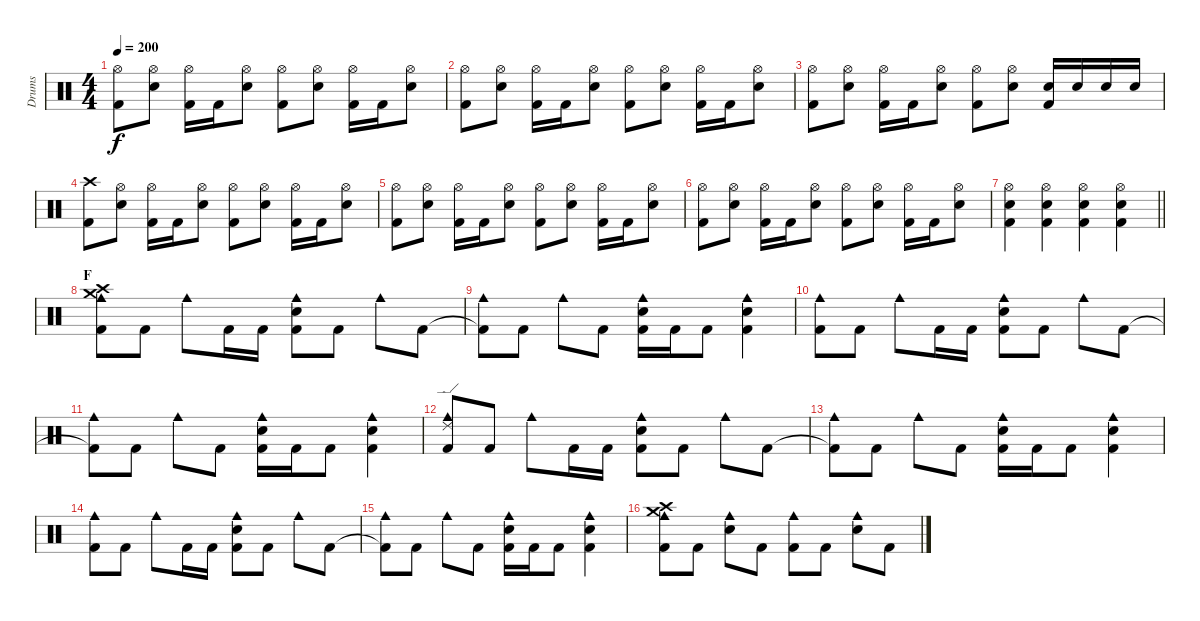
\track ("Drums" "Drums") {instrument percussion}
\staff {score}
\articulation defaults
\ts (4 4)
\tempo 200
\clef neutral
\ks c
("Hi-Hat (open)" "Kick (hit) 2").8{dy f} ("Hi-Hat (open)" "Electric Snare (hit)").8 ("Hi-Hat (open)" "Kick (hit) 2").16 "Kick (hit) 2".16 ("Hi-Hat (open)" "Electric Snare (hit)").8 ("Hi-Hat (open)" "Kick (hit) 2").8 ("Electric Snare (hit)" "Hi-Hat (open)").8 ("Hi-Hat (open)" "Kick (hit) 2").16 "Kick (hit) 2".16 ("Hi-Hat (open)" "Electric Snare (hit)").8 |
("Hi-Hat (open)" "Kick (hit) 2").8 ("Hi-Hat (open)" "Electric Snare (hit)").8 ("Hi-Hat (open)" "Kick (hit) 2").16 "Kick (hit) 2".16 ("Hi-Hat (open)" "Electric Snare (hit)").8 ("Hi-Hat (open)" "Kick (hit) 2").8 ("Electric Snare (hit)" "Hi-Hat (open)").8 ("Hi-Hat (open)" "Kick (hit) 2").16 "Kick (hit) 2".16 ("Hi-Hat (open)" "Electric Snare (hit)").8 |
("Hi-Hat (open)" "Kick (hit) 2").8 ("Hi-Hat (open)" "Electric Snare (hit)").8 ("Hi-Hat (open)" "Kick (hit) 2").16 "Kick (hit) 2".16 ("Hi-Hat (open)" "Electric Snare (hit)").8 ("Hi-Hat (open)" "Kick (hit) 2").8 ("Electric Snare (hit)" "Hi-Hat (open)").8 ("Electric Snare (hit)" "Kick (hit) 2").16 "Electric Snare (hit)".16 "Electric Snare (hit)".16 "Electric Snare (hit)".16 |
("Crash high (hit)" "Kick (hit) 2").8 ("Hi-Hat (open)" "Electric Snare (hit)").8 ("Hi-Hat (open)" "Kick (hit) 2").16 "Kick (hit) 2".16 ("Hi-Hat (open)" "Electric Snare (hit)").8 ("Hi-Hat (open)" "Kick (hit) 2").8 ("Electric Snare (hit)" "Hi-Hat (open)").8 ("Hi-Hat (open)" "Kick (hit) 2").16 "Kick (hit) 2".16 ("Hi-Hat (open)" "Electric Snare (hit)").8 |
("Hi-Hat (open)" "Kick (hit) 2").8 ("Hi-Hat (open)" "Electric Snare (hit)").8 ("Hi-Hat (open)" "Kick (hit) 2").16 "Kick (hit) 2".16 ("Hi-Hat (open)" "Electric Snare (hit)").8 ("Hi-Hat (open)" "Kick (hit) 2").8 ("Electric Snare (hit)" "Hi-Hat (open)").8 ("Hi-Hat (open)" "Kick (hit) 2").16 "Kick (hit) 2".16 ("Hi-Hat (open)" "Electric Snare (hit)").8 |
("Hi-Hat (open)" "Kick (hit) 2").8 ("Hi-Hat (open)" "Electric Snare (hit)").8 ("Hi-Hat (open)" "Kick (hit) 2").16 "Kick (hit) 2".16 ("Hi-Hat (open)" "Electric Snare (hit)").8 ("Hi-Hat (open)" "Kick (hit) 2").8 ("Electric Snare (hit)" "Hi-Hat (open)").8 ("Hi-Hat (open)" "Kick (hit) 2").16 "Kick (hit) 2".16 ("Hi-Hat (open)" "Electric Snare (hit)").8 |
\barLineRight lightlight
("Electric Snare (hit)" "Kick (hit) 2" "Hi-Hat (open)").4 ("Electric Snare (hit)" "Kick (hit) 2" "Hi-Hat (open)").4 ("Electric Snare (hit)" "Kick (hit) 2" "Hi-Hat (open)").4 ("Electric Snare (hit)" "Kick (hit) 2" "Hi-Hat (open)").4 |
\section ("" "F")
("Crash medium (hit)" "Crash high (hit)" "Kick (hit) 2" "Cowbell medium (hit)").8 "Kick (hit) 2".8 "Cowbell medium (hit)".8 "Kick (hit) 2".16 "Kick (hit) 2".16 ("Electric Snare (hit)" "Kick (hit) 2" "Cowbell medium (hit)").8 "Kick (hit) 2".8 "Cowbell medium (hit)".8 "Kick (hit) 2".8 |
("Kick (hit) 2"{t} "Cowbell medium (hit)").8 "Kick (hit) 2".8 "Cowbell medium (hit)".8 "Kick (hit) 2".8 ("Electric Snare (hit)" "Kick (hit) 2" "Cowbell medium (hit)").16 "Kick (hit) 2".16 "Kick (hit) 2".8 ("Electric Snare (hit)" "Kick (hit) 2" "Cowbell medium (hit)").4 |
("Cowbell medium (hit)" "Kick (hit) 2").8 "Kick (hit) 2".8 "Cowbell medium (hit)".8 "Kick (hit) 2".16 "Kick (hit) 2".16 ("Electric Snare (hit)" "Kick (hit) 2" "Cowbell medium (hit)").8 "Kick (hit) 2".8 "Cowbell medium (hit)".8 "Kick (hit) 2".8 |
("Kick (hit) 2"{t} "Cowbell medium (hit)").8 "Kick (hit) 2".8 "Cowbell medium (hit)".8 "Kick (hit) 2".8 ("Electric Snare (hit)" "Kick (hit) 2" "Cowbell medium (hit)").16 "Kick (hit) 2".16 "Kick (hit) 2".8 ("Electric Snare (hit)" "Kick (hit) 2" "Cowbell medium (hit)").4 |
("Ride (edge) 2" "Kick (hit) 2" "Cowbell medium (hit)").8 "Kick (hit) 2".8 "Cowbell medium (hit)".8 "Kick (hit) 2".16 "Kick (hit) 2".16 ("Electric Snare (hit)" "Kick (hit) 2" "Cowbell medium (hit)").8 "Kick (hit) 2".8 "Cowbell medium (hit)".8 "Kick (hit) 2".8 |
("Kick (hit) 2"{t} "Cowbell medium (hit)").8 "Kick (hit) 2".8 "Cowbell medium (hit)".8 "Kick (hit) 2".8 ("Electric Snare (hit)" "Kick (hit) 2" "Cowbell medium (hit)").16 "Kick (hit) 2".16 "Kick (hit) 2".8 ("Electric Snare (hit)" "Kick (hit) 2" "Cowbell medium (hit)").4 |
("Cowbell medium (hit)" "Kick (hit) 2").8 "Kick (hit) 2".8 "Cowbell medium (hit)".8 "Kick (hit) 2".16 "Kick (hit) 2".16 ("Electric Snare (hit)" "Kick (hit) 2" "Cowbell medium (hit)").8 "Kick (hit) 2".8 "Cowbell medium (hit)".8 "Kick (hit) 2".8 |
("Kick (hit) 2"{t} "Cowbell medium (hit)").8 "Kick (hit) 2".8 "Cowbell medium (hit)".8 "Kick (hit) 2".8 ("Electric Snare (hit)" "Kick (hit) 2" "Cowbell medium (hit)").16 "Kick (hit) 2".16 "Kick (hit) 2".8 ("Electric Snare (hit)" "Kick (hit) 2" "Cowbell medium (hit)").4 |
("Crash medium (hit)" "Crash high (hit)" "Kick (hit) 2" "Cowbell medium (hit)").8 "Kick (hit) 2".8 ("Electric Snare (hit)" "Cowbell medium (hit)").8 "Kick (hit) 2".8 ("Kick (hit) 2" "Cowbell medium (hit)").8 "Kick (hit) 2".8 ("Electric Snare (hit)" "Cowbell medium (hit)").8 "Kick (hit) 2".8
